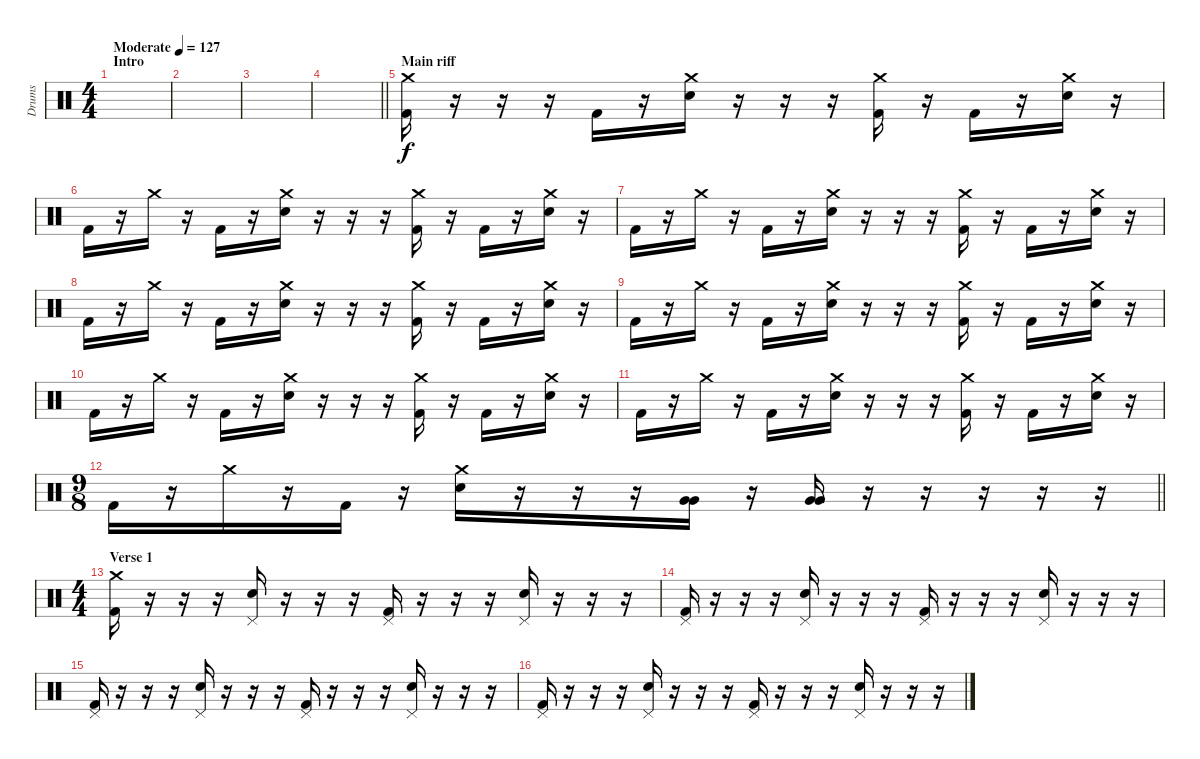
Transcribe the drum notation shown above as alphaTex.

\track ("Drums" "Drums") {instrument percussion}
\staff {score}
\articulation defaults
\ts (4 4)
\section ("" "Intro")
\tempo (127 "Moderate")
\clef neutral
\ks c
|
|
|
\barLineRight lightlight
|
\section ("" "Main riff")
("Crash medium (hit)" "Kick (hit) 2").16 r.16 r.16 r.16 "Kick (hit) 2".16 r.16 ("Crash medium (hit)" "Electric Snare (hit)").16 r.16 r.16 r.16 ("Crash medium (hit)" "Kick (hit) 2").16 r.16 "Kick (hit) 2".16 r.16 ("Crash medium (hit)" "Electric Snare (hit)").16 r.16 |
"Kick (hit) 2".16 r.16 "Crash medium (hit)".16 r.16 "Kick (hit) 2".16 r.16 ("Crash medium (hit)" "Electric Snare (hit)").16 r.16 r.16 r.16 ("Crash medium (hit)" "Kick (hit) 2").16 r.16 "Kick (hit) 2".16 r.16 ("Crash medium (hit)" "Electric Snare (hit)").16 r.16 |
"Kick (hit) 2".16 r.16 "Crash medium (hit)".16 r.16 "Kick (hit) 2".16 r.16 ("Crash medium (hit)" "Electric Snare (hit)").16 r.16 r.16 r.16 ("Crash medium (hit)" "Kick (hit) 2").16 r.16 "Kick (hit) 2".16 r.16 ("Crash medium (hit)" "Electric Snare (hit)").16 r.16 |
"Kick (hit) 2".16 r.16 "Crash medium (hit)".16 r.16 "Kick (hit) 2".16 r.16 ("Crash medium (hit)" "Electric Snare (hit)").16 r.16 r.16 r.16 ("Crash medium (hit)" "Kick (hit) 2").16 r.16 "Kick (hit) 2".16 r.16 ("Crash medium (hit)" "Electric Snare (hit)").16 r.16 |
"Kick (hit) 2".16 r.16 "Crash medium (hit)".16 r.16 "Kick (hit) 2".16 r.16 ("Crash medium (hit)" "Electric Snare (hit)").16 r.16 r.16 r.16 ("Crash medium (hit)" "Kick (hit) 2").16 r.16 "Kick (hit) 2".16 r.16 ("Crash medium (hit)" "Electric Snare (hit)").16 r.16 |
"Kick (hit) 2".16 r.16 "Crash medium (hit)".16 r.16 "Kick (hit) 2".16 r.16 ("Crash medium (hit)" "Electric Snare (hit)").16 r.16 r.16 r.16 ("Crash medium (hit)" "Kick (hit) 2").16 r.16 "Kick (hit) 2".16 r.16 ("Crash medium (hit)" "Electric Snare (hit)").16 r.16 |
"Kick (hit) 2".16 r.16 "Crash medium (hit)".16 r.16 "Kick (hit) 2".16 r.16 ("Crash medium (hit)" "Electric Snare (hit)").16 r.16 r.16 r.16 ("Crash medium (hit)" "Kick (hit) 2").16 r.16 "Kick (hit) 2".16 r.16 ("Crash medium (hit)" "Electric Snare (hit)").16 r.16 |
\ts (9 8)
\barLineRight lightlight "Kick (hit) 2".16
r.16 "Crash medium (hit)".16 r.16 "Kick (hit) 2".16 r.16 ("Crash medium (hit)" "Electric Snare (hit)").16 r.16 r.16 r.16 ("Very Low Tom (hit)" "Very Low Tom (hit)").16 r.16 ("Very Low Tom (hit)" "Very Low Tom (hit)").16 r.16 r.16 r.16 r.16 r.16 |
\ts (4 4)
\section ("" "Verse 1")
("Crash medium (hit)" "Kick (hit) 2").16 r.16 r.16 r.16 ("Pedal Hi-Hat (hit)" "Electric Snare (hit)").16 r.16 r.16 r.16 ("Pedal Hi-Hat (hit)" "Kick (hit) 2").16 r.16 r.16 r.16 ("Pedal Hi-Hat (hit)" "Electric Snare (hit)").16 r.16 r.16 r.16 |
("Pedal Hi-Hat (hit)" "Kick (hit) 2").16 r.16 r.16 r.16 ("Pedal Hi-Hat (hit)" "Electric Snare (hit)").16 r.16 r.16 r.16 ("Pedal Hi-Hat (hit)" "Kick (hit) 2").16 r.16 r.16 r.16 ("Pedal Hi-Hat (hit)" "Electric Snare (hit)").16 r.16 r.16 r.16 |
("Pedal Hi-Hat (hit)" "Kick (hit) 2").16 r.16 r.16 r.16 ("Pedal Hi-Hat (hit)" "Electric Snare (hit)").16 r.16 r.16 r.16 ("Pedal Hi-Hat (hit)" "Kick (hit) 2").16 r.16 r.16 r.16 ("Pedal Hi-Hat (hit)" "Electric Snare (hit)").16 r.16 r.16 r.16 |
("Pedal Hi-Hat (hit)" "Kick (hit) 2").16 r.16 r.16 r.16 ("Pedal Hi-Hat (hit)" "Electric Snare (hit)").16 r.16 r.16 r.16 ("Pedal Hi-Hat (hit)" "Kick (hit) 2").16 r.16 r.16 r.16 ("Pedal Hi-Hat (hit)" "Electric Snare (hit)").16 r.16 r.16 r.16
